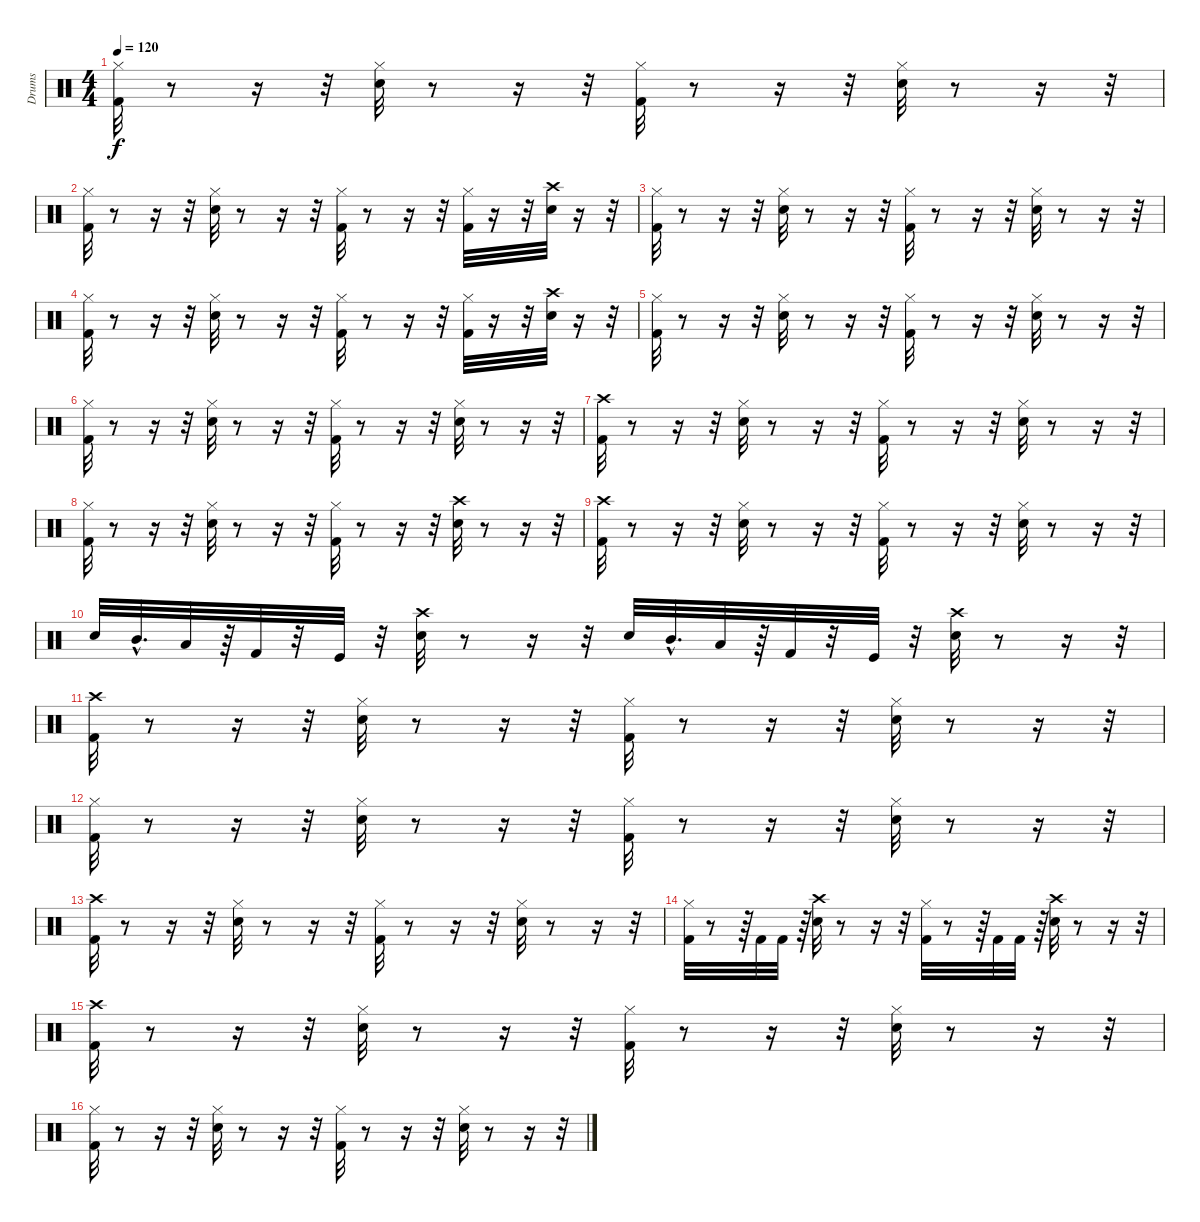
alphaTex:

\track ("Drums" "Drums") {instrument percussion}
\staff {score}
\articulation defaults
\ts (4 4)
\tempo 120
\clef neutral
\ks c
("Hi-Hat (closed)" "Kick (hit) 2").32{dy f} r.8 r.16 r.32 ("Hi-Hat (closed)" "Electric Snare (hit)").32 r.8 r.16 r.32 ("Hi-Hat (closed)" "Kick (hit) 2").32 r.8 r.16 r.32 ("Hi-Hat (closed)" "Electric Snare (hit)").32 r.8 r.16 r.32 |
("Kick (hit) 2" "Hi-Hat (closed)").32 r.8 r.16 r.32 ("Electric Snare (hit)" "Hi-Hat (closed)").32 r.8 r.16 r.32 ("Kick (hit) 2" "Hi-Hat (closed)").32 r.8 r.16 r.32 ("Kick (hit) 2" "Hi-Hat (closed)").32 r.16 r.32 ("Electric Snare (hit)" "Crash high (hit)").32 r.16 r.32 |
("Hi-Hat (closed)" "Kick (hit) 2").32 r.8 r.16 r.32 ("Hi-Hat (closed)" "Electric Snare (hit)").32 r.8 r.16 r.32 ("Hi-Hat (closed)" "Kick (hit) 2").32 r.8 r.16 r.32 ("Hi-Hat (closed)" "Electric Snare (hit)").32 r.8 r.16 r.32 |
("Kick (hit) 2" "Hi-Hat (closed)").32 r.8 r.16 r.32 ("Electric Snare (hit)" "Hi-Hat (closed)").32 r.8 r.16 r.32 ("Kick (hit) 2" "Hi-Hat (closed)").32 r.8 r.16 r.32 ("Kick (hit) 2" "Hi-Hat (closed)").32 r.16 r.32 ("Electric Snare (hit)" "Crash high (hit)").32 r.16 r.32 |
("Kick (hit) 2" "Hi-Hat (closed)").32 r.8 r.16 r.32 ("Electric Snare (hit)" "Hi-Hat (closed)").32 r.8 r.16 r.32 ("Kick (hit) 2" "Hi-Hat (closed)").32 r.8 r.16 r.32 ("Electric Snare (hit)" "Hi-Hat (closed)").32 r.8 r.16 r.32 |
("Hi-Hat (closed)" "Kick (hit) 2").32 r.8 r.16 r.32 ("Hi-Hat (closed)" "Electric Snare (hit)").32 r.8 r.16 r.32 ("Hi-Hat (closed)" "Kick (hit) 2").32 r.8 r.16 r.32 ("Hi-Hat (closed)" "Electric Snare (hit)").32 r.8 r.16 r.32 |
("Kick (hit) 2" "Crash high (hit)").32 r.8 r.16 r.32 ("Electric Snare (hit)" "Hi-Hat (closed)").32 r.8 r.16 r.32 ("Kick (hit) 2" "Hi-Hat (closed)").32 r.8 r.16 r.32 ("Electric Snare (hit)" "Hi-Hat (closed)").32 r.8 r.16 r.32 |
("Hi-Hat (closed)" "Kick (hit) 2").32 r.8 r.16 r.32 ("Hi-Hat (closed)" "Electric Snare (hit)").32 r.8 r.16 r.32 ("Hi-Hat (closed)" "Kick (hit) 2").32 r.8 r.16 r.32 ("Crash high (hit)" "Electric Snare (hit)").32 r.8 r.16 r.32 |
("Kick (hit) 2" "Crash high (hit)").32 r.8 r.16 r.32 ("Electric Snare (hit)" "Hi-Hat (closed)").32 r.8 r.16 r.32 ("Kick (hit) 2" "Hi-Hat (closed)").32 r.8 r.16 r.32 ("Electric Snare (hit)" "Hi-Hat (closed)").32 r.8 r.16 r.32 |
"Electric Snare (hit)".32 "Mid Tom (hit)"{hac}.32{d} "Low Floor Tom (hit)".32 r.64 "Kick (hit) 2".32 r.32 "Kick (hit)".32 r.32 ("Electric Snare (hit)" "Crash high (hit)").32 r.8 r.16 r.32 "Electric Snare (hit)".32 "Mid Tom (hit)"{hac}.32{d} "Low Floor Tom (hit)".32 r.64 "Kick (hit) 2".32 r.32 "Kick (hit)".32 r.32 ("Crash high (hit)" "Electric Snare (hit)").32 r.8 r.16 r.32 |
("Kick (hit) 2" "Crash high (hit)").32 r.8 r.16 r.32 ("Electric Snare (hit)" "Hi-Hat (closed)").32 r.8 r.16 r.32 ("Kick (hit) 2" "Hi-Hat (closed)").32 r.8 r.16 r.32 ("Electric Snare (hit)" "Hi-Hat (closed)").32 r.8 r.16 r.32 |
("Kick (hit) 2" "Hi-Hat (closed)").32 r.8 r.16 r.32 ("Electric Snare (hit)" "Hi-Hat (closed)").32 r.8 r.16 r.32 ("Kick (hit) 2" "Hi-Hat (closed)").32 r.8 r.16 r.32 ("Electric Snare (hit)" "Hi-Hat (closed)").32 r.8 r.16 r.32 |
("Kick (hit) 2" "Crash high (hit)").32 r.8 r.16 r.32 ("Hi-Hat (closed)" "Electric Snare (hit)").32 r.8 r.16 r.32 ("Hi-Hat (closed)" "Kick (hit) 2").32 r.8 r.16 r.32 ("Hi-Hat (closed)" "Electric Snare (hit)").32 r.8 r.16 r.32 |
("Kick (hit) 2" "Hi-Hat (closed)").32 r.8 r.64 "Kick (hit) 2".32 "Kick (hit) 2".32 r.64 ("Crash high (hit)" "Electric Snare (hit)").32 r.8 r.16 r.32 ("Kick (hit) 2" "Hi-Hat (closed)").32 r.8 r.64 "Kick (hit) 2".32 "Kick (hit) 2".32 r.64 ("Crash high (hit)" "Electric Snare (hit)").32 r.8 r.16 r.32 |
("Kick (hit) 2" "Crash high (hit)").32 r.8 r.16 r.32 ("Electric Snare (hit)" "Hi-Hat (closed)").32 r.8 r.16 r.32 ("Kick (hit) 2" "Hi-Hat (closed)").32 r.8 r.16 r.32 ("Electric Snare (hit)" "Hi-Hat (closed)").32 r.8 r.16 r.32 |
("Hi-Hat (closed)" "Kick (hit) 2").32 r.8 r.16 r.32 ("Hi-Hat (closed)" "Electric Snare (hit)").32 r.8 r.16 r.32 ("Hi-Hat (closed)" "Kick (hit) 2").32 r.8 r.16 r.32 ("Hi-Hat (closed)" "Electric Snare (hit)").32 r.8 r.16 r.32
